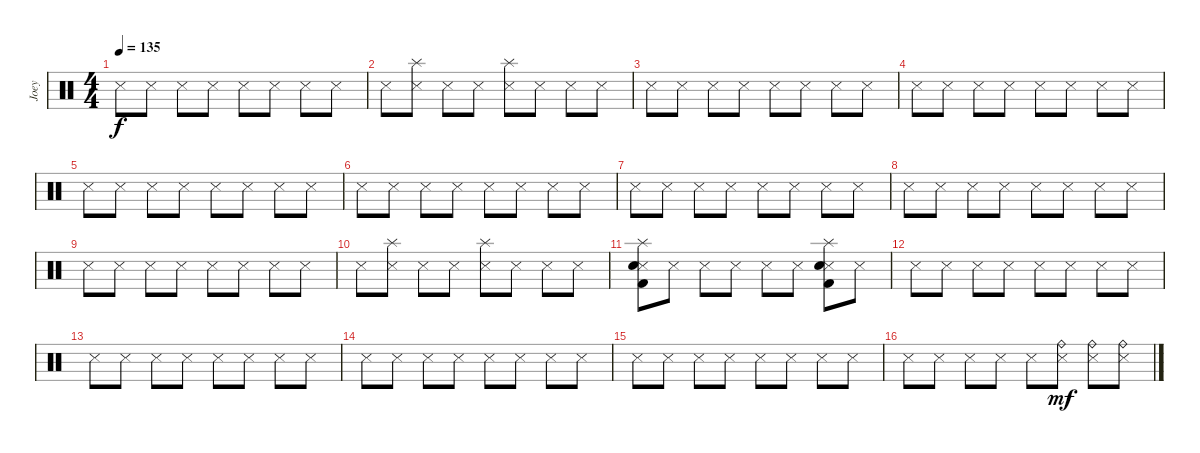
\track ("Joey" "Joey") {instrument percussion}
\staff {score}
\articulation defaults
\ts (4 4)
\tempo 135
\clef neutral
\ks c "Snare (side stick) 3".8{dy f} "Snare (side stick) 3".8 "Snare (side stick) 3".8 "Snare (side stick) 3".8 "Snare (side stick) 3".8 "Snare (side stick) 3".8 "Snare (side stick) 3".8 "Snare (side stick) 3".8
|
"Snare (side stick) 3".8 ("Splash (hit)" "Snare (side stick) 3").8 "Snare (side stick) 3".8 "Snare (side stick) 3".8 ("Splash (hit)" "Snare (side stick) 3").8 "Snare (side stick) 3".8 "Snare (side stick) 3".8 "Snare (side stick) 3".8 |
"Snare (side stick) 3".8 "Snare (side stick) 3".8 "Snare (side stick) 3".8 "Snare (side stick) 3".8 "Snare (side stick) 3".8 "Snare (side stick) 3".8 "Snare (side stick) 3".8 "Snare (side stick) 3".8 |
"Snare (side stick) 3".8 "Snare (side stick) 3".8 "Snare (side stick) 3".8 "Snare (side stick) 3".8 "Snare (side stick) 3".8 "Snare (side stick) 3".8 "Snare (side stick) 3".8 "Snare (side stick) 3".8 |
"Snare (side stick) 3".8 "Snare (side stick) 3".8 "Snare (side stick) 3".8 "Snare (side stick) 3".8 "Snare (side stick) 3".8 "Snare (side stick) 3".8 "Snare (side stick) 3".8 "Snare (side stick) 3".8 |
"Snare (side stick) 3".8 "Snare (side stick) 3".8 "Snare (side stick) 3".8 "Snare (side stick) 3".8 "Snare (side stick) 3".8 "Snare (side stick) 3".8 "Snare (side stick) 3".8 "Snare (side stick) 3".8 |
"Snare (side stick) 3".8 "Snare (side stick) 3".8 "Snare (side stick) 3".8 "Snare (side stick) 3".8 "Snare (side stick) 3".8 "Snare (side stick) 3".8 "Snare (side stick) 3".8 "Snare (side stick) 3".8 |
"Snare (side stick) 3".8 "Snare (side stick) 3".8 "Snare (side stick) 3".8 "Snare (side stick) 3".8 "Snare (side stick) 3".8 "Snare (side stick) 3".8 "Snare (side stick) 3".8 "Snare (side stick) 3".8 |
"Snare (side stick) 3".8 "Snare (side stick) 3".8 "Snare (side stick) 3".8 "Snare (side stick) 3".8 "Snare (side stick) 3".8 "Snare (side stick) 3".8 "Snare (side stick) 3".8 "Snare (side stick) 3".8 |
"Snare (side stick) 3".8 ("Splash (hit)" "Snare (side stick) 3").8 "Snare (side stick) 3".8 "Snare (side stick) 3".8 ("Splash (hit)" "Snare (side stick) 3").8 "Snare (side stick) 3".8 "Snare (side stick) 3".8 "Snare (side stick) 3".8 |
("Kick (hit) 2" "Splash (hit)" "Snare (side stick) 3" "Snare (hit) 2").8 "Snare (side stick) 3".8 "Snare (side stick) 3".8 "Snare (side stick) 3".8 "Snare (side stick) 3".8 "Snare (side stick) 3".8 ("Kick (hit) 2" "Splash (hit)" "Snare (side stick) 3" "Snare (hit) 2").8 "Snare (side stick) 3".8 |
"Snare (side stick) 3".8 "Snare (side stick) 3".8 "Snare (side stick) 3".8 "Snare (side stick) 3".8 "Snare (side stick) 3".8 "Snare (side stick) 3".8 "Snare (side stick) 3".8 "Snare (side stick) 3".8 |
"Snare (side stick) 3".8 "Snare (side stick) 3".8 "Snare (side stick) 3".8 "Snare (side stick) 3".8 "Snare (side stick) 3".8 "Snare (side stick) 3".8 "Snare (side stick) 3".8 "Snare (side stick) 3".8 |
"Snare (side stick) 3".8 "Snare (side stick) 3".8 "Snare (side stick) 3".8 "Snare (side stick) 3".8 "Snare (side stick) 3".8 "Snare (side stick) 3".8 "Snare (side stick) 3".8 "Snare (side stick) 3".8 |
"Snare (side stick) 3".8 "Snare (side stick) 3".8 "Snare (side stick) 3".8 "Snare (side stick) 3".8 "Snare (side stick) 3".8 "Snare (side stick) 3".8 "Snare (side stick) 3".8 "Snare (side stick) 3".8 |
"Snare (side stick) 3".8 "Snare (side stick) 3".8 "Snare (side stick) 3".8 "Snare (side stick) 3".8 "Snare (side stick) 3".8 ("Ride (bell)" "Snare (side stick) 3").8{dy mf} ("Ride (bell)" "Snare (side stick) 3").8 ("Ride (bell)" "Snare (side stick) 3").8
